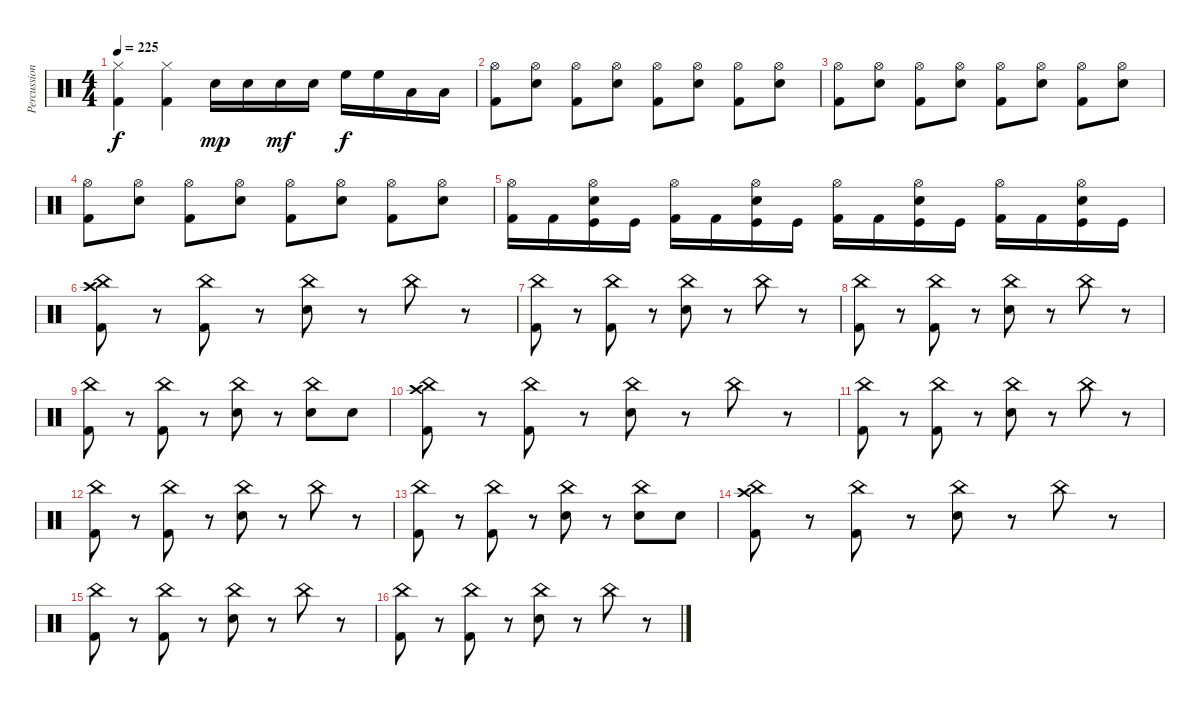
\track ("Percussions" "Percussion") {instrument percussion}
\staff {score}
\articulation defaults
\ts (4 4)
\tempo 225
\clef neutral
\ks c
("Hi-Hat (closed)" "Kick (hit) 2").4{dy f} ("Hi-Hat (closed)" "Kick (hit) 2").4 "Electric Snare (hit)".16{dy mp} "Electric Snare (hit)".16 "Electric Snare (hit)".16{dy mf} "Electric Snare (hit)".16 "High Floor Tom (hit)".16{dy f} "High Floor Tom (hit)".16 "Low Tom (hit)".16 "Low Tom (hit)".16 |
("Hi-Hat (open)" "Kick (hit) 2").8 ("Hi-Hat (open)" "Electric Snare (hit)").8 ("Hi-Hat (open)" "Kick (hit) 2").8 ("Hi-Hat (open)" "Electric Snare (hit)").8 ("Hi-Hat (open)" "Kick (hit) 2").8 ("Hi-Hat (open)" "Electric Snare (hit)").8 ("Hi-Hat (open)" "Kick (hit) 2").8 ("Hi-Hat (open)" "Electric Snare (hit)").8 |
("Hi-Hat (open)" "Kick (hit) 2").8 ("Hi-Hat (open)" "Electric Snare (hit)").8 ("Hi-Hat (open)" "Kick (hit) 2").8 ("Hi-Hat (open)" "Electric Snare (hit)").8 ("Hi-Hat (open)" "Kick (hit) 2").8 ("Hi-Hat (open)" "Electric Snare (hit)").8 ("Hi-Hat (open)" "Kick (hit) 2").8 ("Hi-Hat (open)" "Electric Snare (hit)").8 |
("Hi-Hat (open)" "Kick (hit) 2").8 ("Hi-Hat (open)" "Electric Snare (hit)").8 ("Hi-Hat (open)" "Kick (hit) 2").8 ("Hi-Hat (open)" "Electric Snare (hit)").8 ("Hi-Hat (open)" "Kick (hit) 2").8 ("Hi-Hat (open)" "Electric Snare (hit)").8 ("Hi-Hat (open)" "Kick (hit) 2").8 ("Hi-Hat (open)" "Electric Snare (hit)").8 |
("Hi-Hat (open)" "Kick (hit) 2").16 "Kick (hit) 2".16 ("Electric Snare (hit)" "Hi-Hat (open)" "Kick (hit)").16 "Kick (hit)".16 ("Hi-Hat (open)" "Kick (hit) 2").16 "Kick (hit) 2".16 ("Electric Snare (hit)" "Hi-Hat (open)" "Kick (hit)").16 "Kick (hit)".16 ("Hi-Hat (open)" "Kick (hit) 2").16 "Kick (hit) 2".16 ("Electric Snare (hit)" "Hi-Hat (open)" "Kick (hit)").16 "Kick (hit)".16 ("Hi-Hat (open)" "Kick (hit) 2").16 "Kick (hit) 2".16 ("Electric Snare (hit)" "Hi-Hat (open)" "Kick (hit)").16 "Kick (hit)".16 |
("China (hit)" "Crash high (hit)" "Kick (hit) 2").8 r.8 ("China (hit)" "Kick (hit) 2").8 r.8 ("China (hit)" "Electric Snare (hit)").8 r.8 "China (hit)".8 r.8 |
("China (hit)" "Kick (hit) 2").8 r.8 ("China (hit)" "Kick (hit) 2").8 r.8 ("China (hit)" "Electric Snare (hit)").8 r.8 "China (hit)".8 r.8 |
("China (hit)" "Kick (hit) 2").8 r.8 ("China (hit)" "Kick (hit) 2").8 r.8 ("China (hit)" "Electric Snare (hit)").8 r.8 "China (hit)".8 r.8 |
("China (hit)" "Kick (hit) 2").8 r.8 ("China (hit)" "Kick (hit) 2").8 r.8 ("China (hit)" "Electric Snare (hit)").8 r.8 ("China (hit)" "Electric Snare (hit)").8 "Electric Snare (hit)".8 |
("China (hit)" "Crash high (hit)" "Kick (hit) 2").8 r.8 ("China (hit)" "Kick (hit) 2").8 r.8 ("China (hit)" "Electric Snare (hit)").8 r.8 "China (hit)".8 r.8 |
("China (hit)" "Kick (hit) 2").8 r.8 ("China (hit)" "Kick (hit) 2").8 r.8 ("China (hit)" "Electric Snare (hit)").8 r.8 "China (hit)".8 r.8 |
("China (hit)" "Kick (hit) 2").8 r.8 ("China (hit)" "Kick (hit) 2").8 r.8 ("China (hit)" "Electric Snare (hit)").8 r.8 "China (hit)".8 r.8 |
("China (hit)" "Kick (hit) 2").8 r.8 ("China (hit)" "Kick (hit) 2").8 r.8 ("China (hit)" "Electric Snare (hit)").8 r.8 ("China (hit)" "Electric Snare (hit)").8 "Electric Snare (hit)".8 |
("China (hit)" "Crash high (hit)" "Kick (hit) 2").8 r.8 ("China (hit)" "Kick (hit) 2").8 r.8 ("China (hit)" "Electric Snare (hit)").8 r.8 "China (hit)".8 r.8 |
("China (hit)" "Kick (hit) 2").8 r.8 ("China (hit)" "Kick (hit) 2").8 r.8 ("China (hit)" "Electric Snare (hit)").8 r.8 "China (hit)".8 r.8 |
("China (hit)" "Kick (hit) 2").8 r.8 ("China (hit)" "Kick (hit) 2").8 r.8 ("China (hit)" "Electric Snare (hit)").8 r.8 "China (hit)".8 r.8
